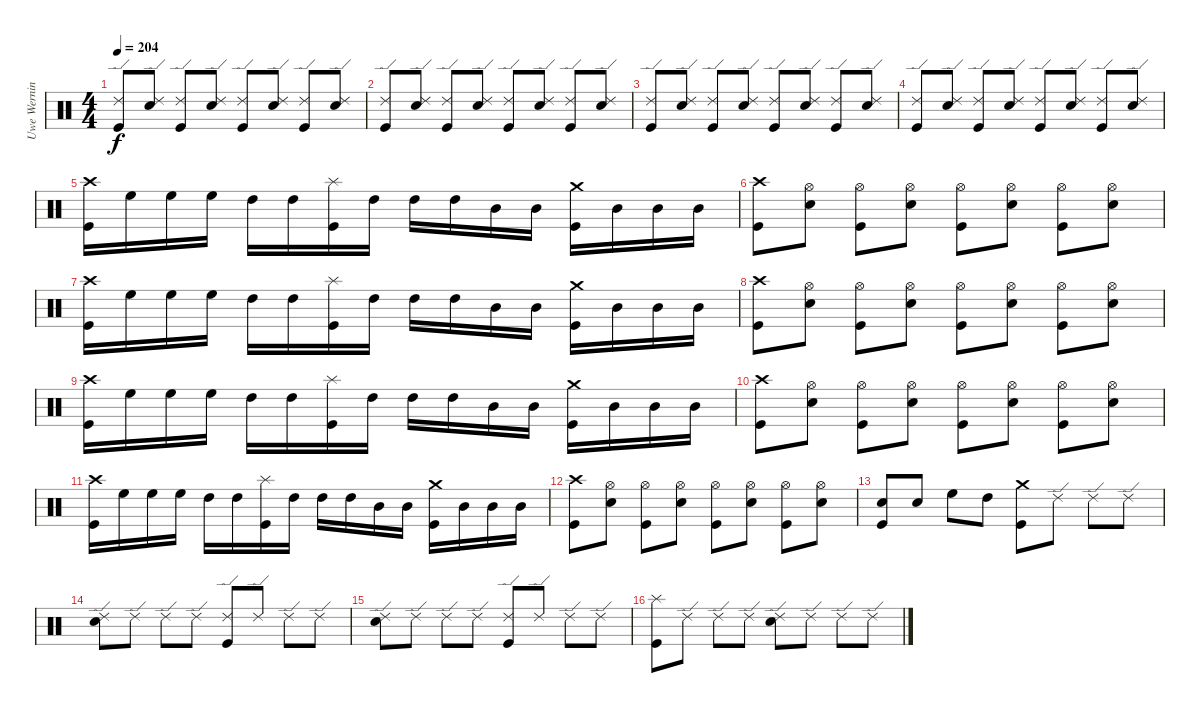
\track ("Uwe Werning" "Uwe Wernin") {instrument percussion}
\staff {score}
\articulation defaults
\ts (4 4)
\tempo 204
\clef neutral
\ks c
("Ride (edge) 2" "Kick (hit)").8{dy f} ("Ride (edge) 2" "Snare (hit) 2").8 ("Ride (edge) 2" "Kick (hit)").8 ("Ride (edge) 2" "Snare (hit) 2").8 ("Ride (edge) 2" "Kick (hit)").8 ("Ride (edge) 2" "Snare (hit) 2").8 ("Ride (edge) 2" "Kick (hit)").8 ("Ride (edge) 2" "Snare (hit) 2").8 |
("Ride (edge) 2" "Kick (hit)").8 ("Ride (edge) 2" "Snare (hit) 2").8 ("Ride (edge) 2" "Kick (hit)").8 ("Ride (edge) 2" "Snare (hit) 2").8 ("Ride (edge) 2" "Kick (hit)").8 ("Ride (edge) 2" "Snare (hit) 2").8 ("Ride (edge) 2" "Kick (hit)").8 ("Ride (edge) 2" "Snare (hit) 2").8 |
("Ride (edge) 2" "Kick (hit)").8 ("Ride (edge) 2" "Snare (hit) 2").8 ("Ride (edge) 2" "Kick (hit)").8 ("Ride (edge) 2" "Snare (hit) 2").8 ("Ride (edge) 2" "Kick (hit)").8 ("Ride (edge) 2" "Snare (hit) 2").8 ("Ride (edge) 2" "Kick (hit)").8 ("Ride (edge) 2" "Snare (hit) 2").8 |
("Ride (edge) 2" "Kick (hit)").8 ("Ride (edge) 2" "Snare (hit) 2").8 ("Ride (edge) 2" "Kick (hit)").8 ("Ride (edge) 2" "Snare (hit) 2").8 ("Ride (edge) 2" "Kick (hit)").8 ("Ride (edge) 2" "Snare (hit) 2").8 ("Ride (edge) 2" "Kick (hit)").8 ("Ride (edge) 2" "Snare (hit) 2").8 |
("Crash high (hit)" "Kick (hit)").16 "High Floor Tom (hit)".16 "High Floor Tom (hit)".16 "High Floor Tom (hit)".16 "High Tom (hit)".16 "High Tom (hit)".16 ("Splash (hit)" "Kick (hit)").16 "High Tom (hit)".16 "High Tom (hit)".16 "High Tom (hit)".16 "Mid Tom (hit)".16 "Mid Tom (hit)".16 ("Crash medium (hit)" "Kick (hit)").16 "Mid Tom (hit)".16 "Mid Tom (hit)".16 "Mid Tom (hit)".16 |
("Crash high (hit)" "Kick (hit)").8 ("Hi-Hat (open)" "Snare (hit) 2").8 ("Hi-Hat (open)" "Kick (hit)").8 ("Hi-Hat (open)" "Snare (hit) 2").8 ("Hi-Hat (open)" "Kick (hit)").8 ("Hi-Hat (open)" "Snare (hit) 2").8 ("Hi-Hat (open)" "Kick (hit)").8 ("Hi-Hat (open)" "Snare (hit) 2").8 |
("Crash high (hit)" "Kick (hit)").16 "High Floor Tom (hit)".16 "High Floor Tom (hit)".16 "High Floor Tom (hit)".16 "High Tom (hit)".16 "High Tom (hit)".16 ("Splash (hit)" "Kick (hit)").16 "High Tom (hit)".16 "High Tom (hit)".16 "High Tom (hit)".16 "Mid Tom (hit)".16 "Mid Tom (hit)".16 ("Crash medium (hit)" "Kick (hit)").16 "Mid Tom (hit)".16 "Mid Tom (hit)".16 "Mid Tom (hit)".16 |
("Crash high (hit)" "Kick (hit)").8 ("Hi-Hat (open)" "Snare (hit) 2").8 ("Hi-Hat (open)" "Kick (hit)").8 ("Hi-Hat (open)" "Snare (hit) 2").8 ("Hi-Hat (open)" "Kick (hit)").8 ("Hi-Hat (open)" "Snare (hit) 2").8 ("Hi-Hat (open)" "Kick (hit)").8 ("Hi-Hat (open)" "Snare (hit) 2").8 |
("Crash high (hit)" "Kick (hit)").16 "High Floor Tom (hit)".16 "High Floor Tom (hit)".16 "High Floor Tom (hit)".16 "High Tom (hit)".16 "High Tom (hit)".16 ("Splash (hit)" "Kick (hit)").16 "High Tom (hit)".16 "High Tom (hit)".16 "High Tom (hit)".16 "Mid Tom (hit)".16 "Mid Tom (hit)".16 ("Crash medium (hit)" "Kick (hit)").16 "Mid Tom (hit)".16 "Mid Tom (hit)".16 "Mid Tom (hit)".16 |
("Crash high (hit)" "Kick (hit)").8 ("Hi-Hat (open)" "Snare (hit) 2").8 ("Hi-Hat (open)" "Kick (hit)").8 ("Hi-Hat (open)" "Snare (hit) 2").8 ("Hi-Hat (open)" "Kick (hit)").8 ("Hi-Hat (open)" "Snare (hit) 2").8 ("Hi-Hat (open)" "Kick (hit)").8 ("Hi-Hat (open)" "Snare (hit) 2").8 |
("Crash high (hit)" "Kick (hit)").16 "High Floor Tom (hit)".16 "High Floor Tom (hit)".16 "High Floor Tom (hit)".16 "High Tom (hit)".16 "High Tom (hit)".16 ("Splash (hit)" "Kick (hit)").16 "High Tom (hit)".16 "High Tom (hit)".16 "High Tom (hit)".16 "Mid Tom (hit)".16 "Mid Tom (hit)".16 ("Crash medium (hit)" "Kick (hit)").16 "Mid Tom (hit)".16 "Mid Tom (hit)".16 "Mid Tom (hit)".16 |
("Crash high (hit)" "Kick (hit)").8 ("Hi-Hat (open)" "Snare (hit) 2").8 ("Hi-Hat (open)" "Kick (hit)").8 ("Hi-Hat (open)" "Snare (hit) 2").8 ("Hi-Hat (open)" "Kick (hit)").8 ("Hi-Hat (open)" "Snare (hit) 2").8 ("Hi-Hat (open)" "Kick (hit)").8 ("Hi-Hat (open)" "Snare (hit) 2").8 |
("Snare (hit) 2" "Kick (hit)").8 "Snare (hit) 2".8 "High Floor Tom (hit)".8 "High Tom (hit)".8 ("Crash medium (hit)" "Kick (hit)").8 "Ride (edge) 2".8 "Ride (edge) 2".8 "Ride (edge) 2".8 |
("Ride (edge) 2" "Snare (hit) 2").8 "Ride (edge) 2".8 "Ride (edge) 2".8 "Ride (edge) 2".8 ("Ride (edge) 2" "Kick (hit)").8 "Ride (edge) 2".8 "Ride (edge) 2".8 "Ride (edge) 2".8 |
("Ride (edge) 2" "Snare (hit) 2").8 "Ride (edge) 2".8 "Ride (edge) 2".8 "Ride (edge) 2".8 ("Ride (edge) 2" "Kick (hit)").8 "Ride (edge) 2".8 "Ride (edge) 2".8 "Ride (edge) 2".8 |
("Splash (hit)" "Kick (hit)").8 "Ride (edge) 2".8 "Ride (edge) 2".8 "Ride (edge) 2".8 ("Ride (edge) 2" "Snare (hit) 2").8 "Ride (edge) 2".8 "Ride (edge) 2".8 "Ride (edge) 2".8
